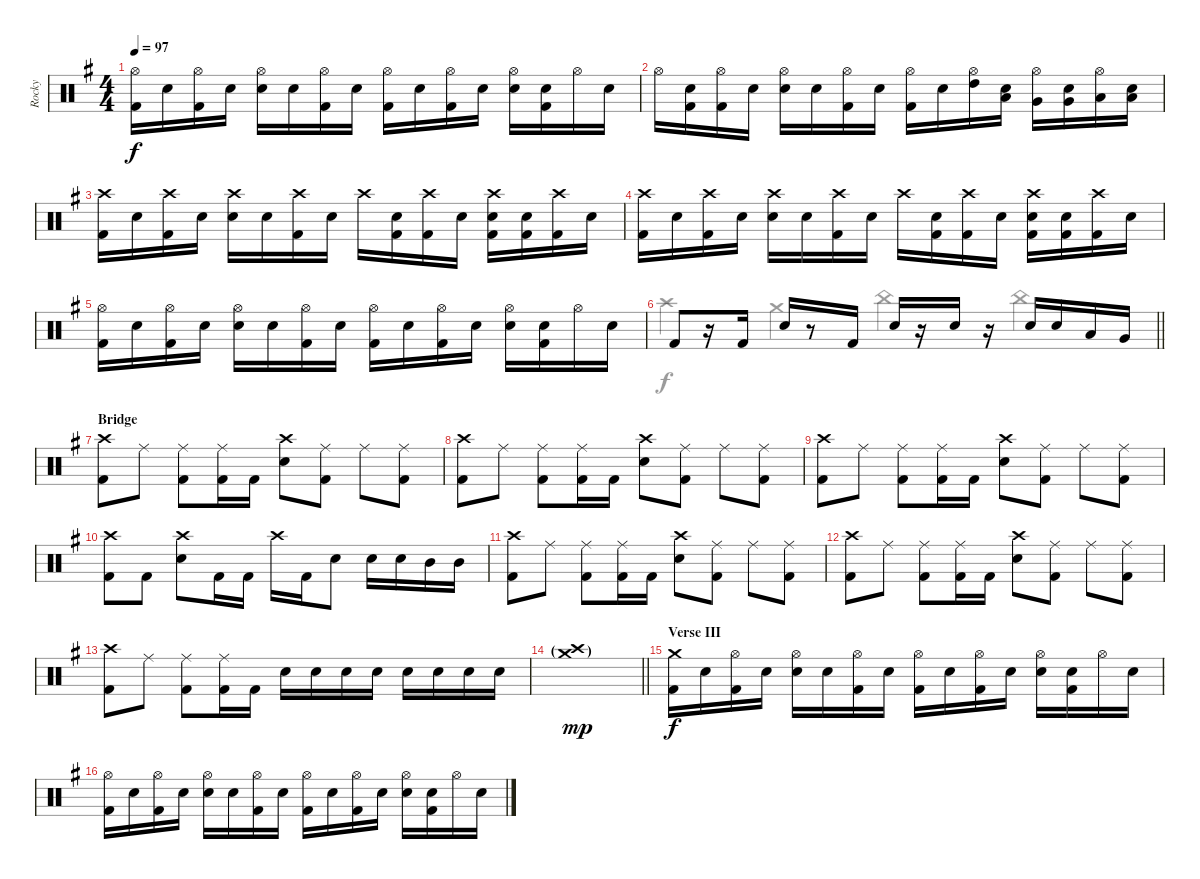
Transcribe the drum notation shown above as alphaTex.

\track ("Rocky" "Rocky") {instrument percussion}
\staff {score}
\articulation defaults
\voice
\ts (4 4)
\tempo 97
\clef neutral
\ks g
("Hi-Hat (open)" "Kick (hit) 2").16{dy f} "Snare (hit)".16 ("Hi-Hat (open)" "Kick (hit) 2").16 "Snare (hit)".16 ("Hi-Hat (open)" "Snare (hit) 2").16 "Snare (hit)".16 ("Hi-Hat (open)" "Kick (hit) 2").16 "Snare (hit)".16 ("Hi-Hat (open)" "Kick (hit) 2").16 "Snare (hit)".16 ("Hi-Hat (open)" "Kick (hit) 2").16 "Snare (hit)".16 ("Hi-Hat (open)" "Snare (hit) 2").16 ("Snare (hit)" "Kick (hit) 2").16 "Hi-Hat (open)".16 "Snare (hit)".16 |
"Hi-Hat (open)".16 ("Snare (hit)" "Kick (hit) 2").16 ("Hi-Hat (open)" "Kick (hit) 2").16 "Snare (hit)".16 ("Hi-Hat (open)" "Snare (hit) 2").16 "Snare (hit)".16 ("Hi-Hat (open)" "Kick (hit) 2").16 "Snare (hit)".16 ("Hi-Hat (open)" "Kick (hit) 2").16 "Snare (hit)".16 ("Hi-Hat (open)" "High Tom (hit)").16 ("Snare (hit)" "Low Tom (hit)").16 ("Hi-Hat (open)" "Very Low Tom (hit)").16 ("Snare (hit)" "Very Low Tom (hit)").16 ("Hi-Hat (open)" "Low Floor Tom (hit)").16 ("Snare (hit)" "Low Floor Tom (hit)").16 |
("Crash high (hit)" "Kick (hit) 2").16 "Snare (hit)".16 ("Crash high (hit)" "Kick (hit) 2").16 "Snare (hit)".16 ("Crash high (hit)" "Snare (hit) 2").16 "Snare (hit)".16 ("Crash high (hit)" "Kick (hit) 2").16 "Snare (hit)".16 "Crash high (hit)".16 ("Snare (hit)" "Kick (hit) 2").16 ("Crash high (hit)" "Kick (hit) 2").16 "Snare (hit)".16 ("Crash high (hit)" "Snare (hit) 2" "Kick (hit) 2").16 ("Snare (hit)" "Kick (hit) 2").16 ("Crash high (hit)" "Kick (hit) 2").16 "Snare (hit)".16 |
("Crash high (hit)" "Kick (hit) 2").16 "Snare (hit)".16 ("Crash high (hit)" "Kick (hit) 2").16 "Snare (hit)".16 ("Crash high (hit)" "Snare (hit) 2").16 "Snare (hit)".16 ("Crash high (hit)" "Kick (hit) 2").16 "Snare (hit)".16 "Crash high (hit)".16 ("Snare (hit)" "Kick (hit) 2").16 ("Crash high (hit)" "Kick (hit) 2").16 "Snare (hit)".16 ("Crash high (hit)" "Snare (hit) 2" "Kick (hit) 2").16 ("Snare (hit)" "Kick (hit) 2").16 ("Crash high (hit)" "Kick (hit) 2").16 "Snare (hit)".16 |
("Hi-Hat (open)" "Kick (hit) 2").16 "Snare (hit)".16 ("Hi-Hat (open)" "Kick (hit) 2").16 "Snare (hit)".16 ("Hi-Hat (open)" "Snare (hit) 2").16 "Snare (hit)".16 ("Hi-Hat (open)" "Kick (hit) 2").16 "Snare (hit)".16 ("Hi-Hat (open)" "Kick (hit) 2").16 "Snare (hit)".16 ("Hi-Hat (open)" "Kick (hit) 2").16 "Snare (hit)".16 ("Hi-Hat (open)" "Snare (hit) 2").16 ("Snare (hit)" "Kick (hit) 2").16 "Hi-Hat (open)".16 "Snare (hit)".16 |
\barLineRight lightlight "Kick (hit) 2".8
r.16 "Kick (hit) 2".16 "Snare (hit) 2".16 r.8 "Kick (hit) 2".16 "Snare (hit) 2".16 r.16 "Snare (hit) 2".16 r.16 "Snare (hit) 2".16 "Snare (hit) 2".16 "Low Tom (hit)".16 "Very Low Tom (hit)".16 |
\section ("" "Bridge")
("Crash high (hit)" "Kick (hit) 2").8 "Ride (middle)".8 ("Ride (middle)" "Kick (hit) 2").8 ("Ride (middle)" "Kick (hit) 2").16 "Kick (hit) 2".16 ("Crash high (hit)" "Snare (hit) 2").8 ("Ride (middle)" "Kick (hit) 2").8 "Ride (middle)".8 ("Ride (middle)" "Kick (hit) 2").8 |
("Crash high (hit)" "Kick (hit) 2").8 "Ride (middle)".8 ("Ride (middle)" "Kick (hit) 2").8 ("Ride (middle)" "Kick (hit) 2").16 "Kick (hit) 2".16 ("Crash high (hit)" "Snare (hit) 2").8 ("Ride (middle)" "Kick (hit) 2").8 "Ride (middle)".8 ("Ride (middle)" "Kick (hit) 2").8 |
("Crash high (hit)" "Kick (hit) 2").8 "Ride (middle)".8 ("Ride (middle)" "Kick (hit) 2").8 ("Ride (middle)" "Kick (hit) 2").16 "Kick (hit) 2".16 ("Crash high (hit)" "Snare (hit) 2").8 ("Ride (middle)" "Kick (hit) 2").8 "Ride (middle)".8 ("Ride (middle)" "Kick (hit) 2").8 |
("Crash high (hit)" "Kick (hit) 2").8 "Kick (hit) 2".8 ("Crash high (hit)" "Snare (hit) 2").8 "Kick (hit) 2".16 "Kick (hit) 2".16 "Crash high (hit)".16 "Kick (hit) 2".16 "Snare (hit) 2".8 "Snare (hit) 2".16 "Snare (hit) 2".16 "Mid Tom (hit)".16 "Mid Tom (hit)".16 |
("Crash high (hit)" "Kick (hit) 2").8 "Ride (middle)".8 ("Ride (middle)" "Kick (hit) 2").8 ("Ride (middle)" "Kick (hit) 2").16 "Kick (hit) 2".16 ("Crash high (hit)" "Snare (hit) 2").8 ("Ride (middle)" "Kick (hit) 2").8 "Ride (middle)".8 ("Ride (middle)" "Kick (hit) 2").8 |
("Crash high (hit)" "Kick (hit) 2").8 "Ride (middle)".8 ("Ride (middle)" "Kick (hit) 2").8 ("Ride (middle)" "Kick (hit) 2").16 "Kick (hit) 2".16 ("Crash high (hit)" "Snare (hit) 2").8 ("Ride (middle)" "Kick (hit) 2").8 "Ride (middle)".8 ("Ride (middle)" "Kick (hit) 2").8 |
("Crash high (hit)" "Kick (hit) 2").8 "Ride (middle)".8 ("Ride (middle)" "Kick (hit) 2").8 ("Ride (middle)" "Kick (hit) 2").16 "Kick (hit) 2".16 "Snare (hit) 2".16 "Snare (hit) 2".16 "Snare (hit) 2".16 "Snare (hit) 2".16 "Snare (hit) 2".16{bd 240} "Snare (hit) 2".16 "Snare (hit) 2".16 "Snare (hit) 2".16 |
\barLineRight lightlight
("Crash high (hit)"{g} "Crash medium (hit)"{g}).1{dy mp} |
\section ("" "Verse III")
("Crash medium (hit)" "Kick (hit) 2").16{dy f} "Snare (hit)".16 ("Hi-Hat (open)" "Kick (hit) 2").16 "Snare (hit)".16 ("Hi-Hat (open)" "Snare (hit) 2").16 "Snare (hit)".16 ("Hi-Hat (open)" "Kick (hit) 2").16 "Snare (hit)".16 ("Hi-Hat (open)" "Kick (hit) 2").16 "Snare (hit)".16 ("Hi-Hat (open)" "Kick (hit) 2").16 "Snare (hit)".16 ("Hi-Hat (open)" "Snare (hit) 2").16 ("Snare (hit)" "Kick (hit) 2").16 "Hi-Hat (open)".16 "Snare (hit)".16 |
("Hi-Hat (open)" "Kick (hit) 2").16 "Snare (hit)".16 ("Hi-Hat (open)" "Kick (hit) 2").16 "Snare (hit)".16 ("Hi-Hat (open)" "Snare (hit) 2").16 "Snare (hit)".16 ("Hi-Hat (open)" "Kick (hit) 2").16 "Snare (hit)".16 ("Hi-Hat (open)" "Kick (hit) 2").16 "Snare (hit)".16 ("Hi-Hat (open)" "Kick (hit) 2").16 "Snare (hit)".16 ("Hi-Hat (open)" "Snare (hit) 2").16 ("Snare (hit)" "Kick (hit) 2").16 "Hi-Hat (open)".16 "Snare (hit)".16
\voice
\clef neutral
\ottava regular
\simile none
\ks g
|
|
|
|
|
\barLineRight lightlight "Crash high (hit)".4 "Crash medium (hit)".4 "China (hit)".4 "China (hit)".4
|
|
|
|
|
|
|
|
\barLineRight lightlight
|
|
